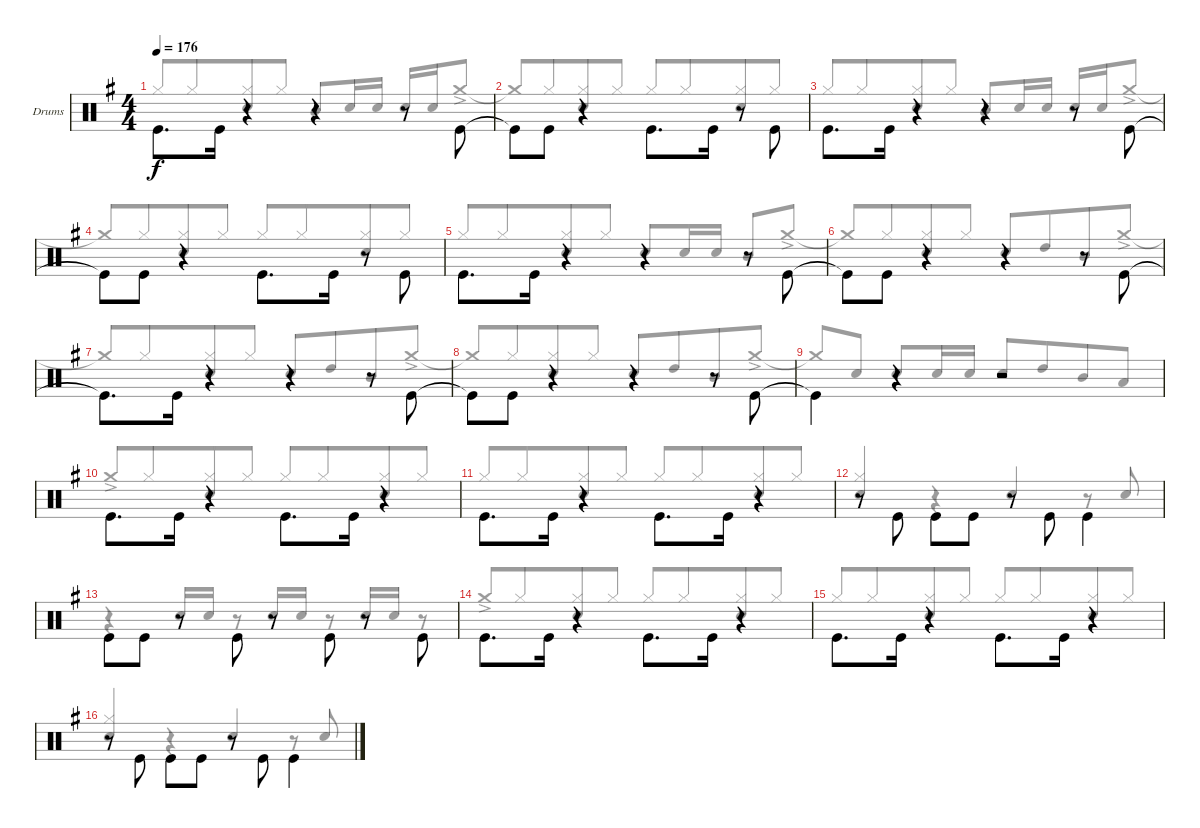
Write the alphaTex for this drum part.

\bracketExtendMode groupsimilarinstruments
\firstSystemTrackNameOrientation horizontal
\otherSystemsTrackNameOrientation horizontal
\track ("Drums" "Drums") {instrument percussion}
\staff {score}
\articulation defaults
\voice
\ts (4 4)
\tempo 176
\clef neutral
\scale
1.04288
\ks g "Kick (hit)".8{d dy f beam invert} "Kick (hit)".16
r.4{beam invert} r.4{beam invert} r.8{beam invert} "Kick (hit)".8{beam invert} |
\scale
0.957125 "Kick (hit)"{t}.8{beam invert} "Kick (hit)".8 r.4 "Kick (hit)".8{d beam invert} "Kick (hit)".16 r.8{beam invert} "Kick (hit)".8{beam invert} |
\scale
1.04288 "Kick (hit)".8{d beam invert} "Kick (hit)".16 r.4{beam invert} r.4{beam invert} r.8{beam invert} "Kick (hit)".8{beam invert} |
\scale
0.957125 "Kick (hit)"{t}.8{beam invert} "Kick (hit)".8 r.4 "Kick (hit)".8{d beam invert} "Kick (hit)".16 r.8{beam invert} "Kick (hit)".8{beam invert} |
\scale
1.04288 "Kick (hit)".8{d beam invert} "Kick (hit)".16 r.4{beam invert} r.4{beam invert} r.8{beam invert} "Kick (hit)".8{beam invert} |
\scale
0.957125 "Kick (hit)"{t}.8{beam invert} "Kick (hit)".8 r.4 r.4 r.8 "Kick (hit)".8{beam invert} |
\scale
1.04288 "Kick (hit)"{t}.8{d beam invert} "Kick (hit)".16 r.4{beam invert} r.4{beam invert} r.8{beam invert} "Kick (hit)".8{beam invert} |
\scale
0.957125 "Kick (hit)"{t}.8{beam invert} "Kick (hit)".8 r.4 r.4 r.8 "Kick (hit)".8{beam invert} |
\scale
1.04288 "Kick (hit)"{t}.4{beam invert} r.4 r.2 |
\scale
0.957125 "Kick (hit)".8{d beam invert} "Kick (hit)".16 r.4{beam invert} "Kick (hit)".8{d beam invert} "Kick (hit)".16 r.4{beam invert} |
\scale
1.04288 "Kick (hit)".8{d beam invert} "Kick (hit)".16 r.4{beam invert} "Kick (hit)".8{d beam invert} "Kick (hit)".16 r.4{beam invert} |
\scale
0.957125 r.8 "Kick (hit)".8{beam invert} "Kick (hit)".8{beam invert} "Kick (hit)".8 r.8{beam invert} "Kick (hit)".8{beam invert} "Kick (hit)".4{beam invert} |
\scale
1.04288 "Kick (hit)".8{beam invert} "Kick (hit)".8 r.8{beam invert} "Kick (hit)".8{beam invert} r.8{beam invert} "Kick (hit)".8{beam invert} r.8{beam invert} "Kick (hit)".8{beam invert} |
\scale
0.957125 "Kick (hit)".8{d beam invert} "Kick (hit)".16 r.4{beam invert} "Kick (hit)".8{d beam invert} "Kick (hit)".16 r.4{beam invert} |
\scale
1.04288 "Kick (hit)".8{d beam invert} "Kick (hit)".16 r.4{beam invert} "Kick (hit)".8{d beam invert} "Kick (hit)".16 r.4{beam invert} |
\scale
0.957125 r.8 "Kick (hit)".8{beam invert} "Kick (hit)".8{beam invert} "Kick (hit)".8 r.8{beam invert} "Kick (hit)".8{beam invert} "Kick (hit)".4{beam invert}
\voice
\clef neutral
\ottava regular
\simile none
\scale
1.04288
\ks g "Hi-Hat (closed)".8{dy f beam invert beam merge} "Hi-Hat (closed)".8{beam merge}
("Hi-Hat (closed)" "Snare (hit) 2").8{beam merge} "Hi-Hat (closed)".8{beam split} "Mid Tom (hit)".8{beam invert} "Snare (hit) 2".16 "Snare (hit) 2".16 "Snare (hit) 2".16{beam invert} "Snare (hit) 2".16 "Crash medium (hit)"{ac}.8 |
\scale
0.957125 "Crash medium (hit)"{t}.8{beam invert} "Hi-Hat (closed)".8{beam merge} ("Hi-Hat (closed)" "Snare (hit) 2").8{beam merge} "Hi-Hat (closed)".8{beam split} "Hi-Hat (closed)".8{beam invert beam merge} "Hi-Hat (closed)".8{beam merge} ("Hi-Hat (closed)" "Snare (hit) 2").8{beam merge} "Hi-Hat (closed)".8{beam split} |
\scale
1.04288 "Hi-Hat (closed)".8{beam invert beam merge} "Hi-Hat (closed)".8{beam merge} ("Hi-Hat (closed)" "Snare (hit) 2").8{beam merge} "Hi-Hat (closed)".8{beam split} "Mid Tom (hit)".8{beam invert} "Snare (hit) 2".16 "Snare (hit) 2".16 "Snare (hit) 2".16{beam invert} "Snare (hit) 2".16 "Crash medium (hit)"{ac}.8 |
\scale
0.957125 "Crash medium (hit)"{t}.8{beam invert} "Hi-Hat (closed)".8{beam merge} ("Hi-Hat (closed)" "Snare (hit) 2").8{beam merge} "Hi-Hat (closed)".8{beam split} "Hi-Hat (closed)".8{beam invert beam merge} "Hi-Hat (closed)".8{beam merge} ("Hi-Hat (closed)" "Snare (hit) 2").8{beam merge} "Hi-Hat (closed)".8{beam split} |
\scale
1.04288 "Hi-Hat (closed)".8{beam invert beam merge} "Hi-Hat (closed)".8{beam merge} ("Hi-Hat (closed)" "Snare (hit) 2").8{beam merge} "Hi-Hat (closed)".8{beam split} "Snare (hit) 2".8{beam invert} "Snare (hit) 2".16 "Snare (hit) 2".16 "Mid Tom (hit)".8{beam invert} "Crash medium (hit)"{ac}.8 |
\scale
0.957125 "Crash medium (hit)"{t}.8{beam invert} "Hi-Hat (closed)".8{beam merge} ("Hi-Hat (closed)" "Snare (hit) 2").8{beam merge} "Hi-Hat (closed)".8{beam split} "Snare (hit) 2".8{beam invert} "High Tom (hit)".8{beam merge} "Mid Tom (hit)".8 "Crash medium (hit)"{ac}.8 |
\scale
1.04288 "Crash medium (hit)"{t}.8{beam invert} "Hi-Hat (closed)".8{beam merge} ("Hi-Hat (closed)" "Snare (hit) 2").8{beam merge} "Hi-Hat (closed)".8{beam split} "Snare (hit) 2".8{beam invert} "High Tom (hit)".8{beam merge} "Mid Tom (hit)".8 "Crash medium (hit)"{ac}.8 |
\scale
0.957125 "Crash medium (hit)"{t}.8{beam invert} "Hi-Hat (closed)".8{beam merge} ("Hi-Hat (closed)" "Snare (hit) 2").8{beam merge} "Hi-Hat (closed)".8{beam split} "Snare (hit) 2".8{beam invert} "High Tom (hit)".8{beam merge} "Mid Tom (hit)".8 "Crash medium (hit)"{ac}.8 |
\scale
1.04288 "Crash medium (hit)"{t}.8{beam invert} "Snare (hit) 2".8 "Snare (hit) 2".8{beam invert} "Snare (hit) 2".16 "Snare (hit) 2".16 "Snare (hit) 2".8{beam invert} "High Tom (hit)".8{beam merge} "Mid Tom (hit)".8 "Low Tom (hit)".8 |
\scale
0.957125 "Crash medium (hit)"{ac}.8{beam invert beam merge} "Hi-Hat (closed)".8{beam merge} ("Hi-Hat (closed)" "Snare (hit) 2").8{beam merge} "Hi-Hat (closed)".8{beam split} "Hi-Hat (closed)".8{beam invert beam merge} "Hi-Hat (closed)".8{beam merge} ("Hi-Hat (closed)" "Snare (hit) 2").8{beam merge} "Hi-Hat (closed)".8{beam merge} |
\scale
1.04288 "Hi-Hat (closed)".8{beam invert beam merge} "Hi-Hat (closed)".8{beam merge} ("Hi-Hat (closed)" "Snare (hit) 2").8{beam merge} "Hi-Hat (closed)".8{beam split} "Hi-Hat (closed)".8{beam invert beam merge} "Hi-Hat (closed)".8{beam merge} ("Hi-Hat (closed)" "Snare (hit) 2").8{beam merge} "Hi-Hat (closed)".8{beam merge} |
\scale
0.957125 ("Hi-Hat (closed)" "Snare (hit) 2").4{beam invert} r.4 "Snare (hit) 2".4{beam invert} r.8 "Snare (hit) 2".8{beam invert} |
\scale
1.04288 r.4 "Snare (hit) 2".16{beam invert} "Snare (hit) 2".16 r.8 "Snare (hit) 2".16{beam invert} "Snare (hit) 2".16 r.8 "Snare (hit) 2".16{beam invert} "Snare (hit) 2".16 r.8 |
\scale
0.957125 "Crash medium (hit)"{ac}.8{beam invert beam merge} "Hi-Hat (closed)".8{beam merge} ("Hi-Hat (closed)" "Snare (hit) 2").8{beam merge} "Hi-Hat (closed)".8{beam split} "Hi-Hat (closed)".8{beam invert beam merge} "Hi-Hat (closed)".8{beam merge} ("Hi-Hat (closed)" "Snare (hit) 2").8{beam merge} "Hi-Hat (closed)".8{beam merge} |
\scale
1.04288 "Hi-Hat (closed)".8{beam invert beam merge} "Hi-Hat (closed)".8{beam merge} ("Hi-Hat (closed)" "Snare (hit) 2").8{beam merge} "Hi-Hat (closed)".8{beam split} "Hi-Hat (closed)".8{beam invert beam merge} "Hi-Hat (closed)".8{beam merge} ("Hi-Hat (closed)" "Snare (hit) 2").8{beam merge} "Hi-Hat (closed)".8{beam merge} |
\scale
0.957125 ("Hi-Hat (closed)" "Snare (hit) 2").4{beam invert} r.4 "Snare (hit) 2".4{beam invert} r.8 "Snare (hit) 2".8{beam invert}
